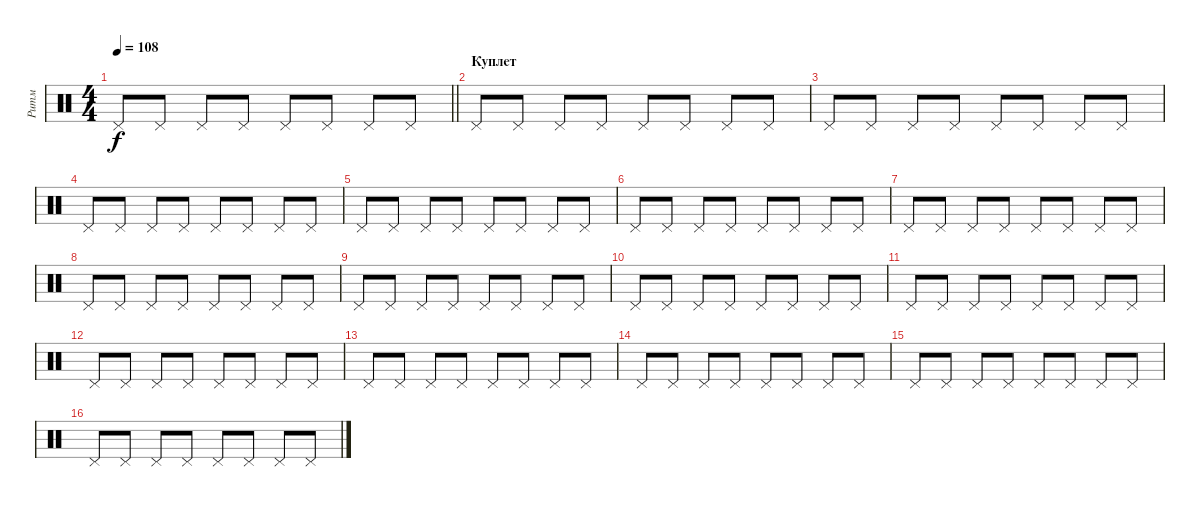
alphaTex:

\track ("Ритм" "Ритм") {instrument percussion}
\staff {score}
\articulation defaults
\ts (4 4)
\tempo 108
\clef neutral
\barLineRight lightlight
\ks c "Pedal Hi-Hat (hit)".8{dy f} "Pedal Hi-Hat (hit)".8 "Pedal Hi-Hat (hit)".8 "Pedal Hi-Hat (hit)".8 "Pedal Hi-Hat (hit)".8 "Pedal Hi-Hat (hit)".8 "Pedal Hi-Hat (hit)".8 "Pedal Hi-Hat (hit)".8
|
\section ("" "Куплет")
"Pedal Hi-Hat (hit)".8 "Pedal Hi-Hat (hit)".8 "Pedal Hi-Hat (hit)".8 "Pedal Hi-Hat (hit)".8 "Pedal Hi-Hat (hit)".8 "Pedal Hi-Hat (hit)".8 "Pedal Hi-Hat (hit)".8 "Pedal Hi-Hat (hit)".8 |
"Pedal Hi-Hat (hit)".8 "Pedal Hi-Hat (hit)".8 "Pedal Hi-Hat (hit)".8 "Pedal Hi-Hat (hit)".8 "Pedal Hi-Hat (hit)".8 "Pedal Hi-Hat (hit)".8 "Pedal Hi-Hat (hit)".8 "Pedal Hi-Hat (hit)".8 |
"Pedal Hi-Hat (hit)".8 "Pedal Hi-Hat (hit)".8 "Pedal Hi-Hat (hit)".8 "Pedal Hi-Hat (hit)".8 "Pedal Hi-Hat (hit)".8 "Pedal Hi-Hat (hit)".8 "Pedal Hi-Hat (hit)".8 "Pedal Hi-Hat (hit)".8 |
"Pedal Hi-Hat (hit)".8 "Pedal Hi-Hat (hit)".8 "Pedal Hi-Hat (hit)".8 "Pedal Hi-Hat (hit)".8 "Pedal Hi-Hat (hit)".8 "Pedal Hi-Hat (hit)".8 "Pedal Hi-Hat (hit)".8 "Pedal Hi-Hat (hit)".8 |
"Pedal Hi-Hat (hit)".8 "Pedal Hi-Hat (hit)".8 "Pedal Hi-Hat (hit)".8 "Pedal Hi-Hat (hit)".8 "Pedal Hi-Hat (hit)".8 "Pedal Hi-Hat (hit)".8 "Pedal Hi-Hat (hit)".8 "Pedal Hi-Hat (hit)".8 |
"Pedal Hi-Hat (hit)".8 "Pedal Hi-Hat (hit)".8 "Pedal Hi-Hat (hit)".8 "Pedal Hi-Hat (hit)".8 "Pedal Hi-Hat (hit)".8 "Pedal Hi-Hat (hit)".8 "Pedal Hi-Hat (hit)".8 "Pedal Hi-Hat (hit)".8 |
"Pedal Hi-Hat (hit)".8 "Pedal Hi-Hat (hit)".8 "Pedal Hi-Hat (hit)".8 "Pedal Hi-Hat (hit)".8 "Pedal Hi-Hat (hit)".8 "Pedal Hi-Hat (hit)".8 "Pedal Hi-Hat (hit)".8 "Pedal Hi-Hat (hit)".8 |
"Pedal Hi-Hat (hit)".8 "Pedal Hi-Hat (hit)".8 "Pedal Hi-Hat (hit)".8 "Pedal Hi-Hat (hit)".8 "Pedal Hi-Hat (hit)".8 "Pedal Hi-Hat (hit)".8 "Pedal Hi-Hat (hit)".8 "Pedal Hi-Hat (hit)".8 |
"Pedal Hi-Hat (hit)".8 "Pedal Hi-Hat (hit)".8 "Pedal Hi-Hat (hit)".8 "Pedal Hi-Hat (hit)".8 "Pedal Hi-Hat (hit)".8 "Pedal Hi-Hat (hit)".8 "Pedal Hi-Hat (hit)".8 "Pedal Hi-Hat (hit)".8 |
"Pedal Hi-Hat (hit)".8 "Pedal Hi-Hat (hit)".8 "Pedal Hi-Hat (hit)".8 "Pedal Hi-Hat (hit)".8 "Pedal Hi-Hat (hit)".8 "Pedal Hi-Hat (hit)".8 "Pedal Hi-Hat (hit)".8 "Pedal Hi-Hat (hit)".8 |
"Pedal Hi-Hat (hit)".8 "Pedal Hi-Hat (hit)".8 "Pedal Hi-Hat (hit)".8 "Pedal Hi-Hat (hit)".8 "Pedal Hi-Hat (hit)".8 "Pedal Hi-Hat (hit)".8 "Pedal Hi-Hat (hit)".8 "Pedal Hi-Hat (hit)".8 |
"Pedal Hi-Hat (hit)".8 "Pedal Hi-Hat (hit)".8 "Pedal Hi-Hat (hit)".8 "Pedal Hi-Hat (hit)".8 "Pedal Hi-Hat (hit)".8 "Pedal Hi-Hat (hit)".8 "Pedal Hi-Hat (hit)".8 "Pedal Hi-Hat (hit)".8 |
"Pedal Hi-Hat (hit)".8 "Pedal Hi-Hat (hit)".8 "Pedal Hi-Hat (hit)".8 "Pedal Hi-Hat (hit)".8 "Pedal Hi-Hat (hit)".8 "Pedal Hi-Hat (hit)".8 "Pedal Hi-Hat (hit)".8 "Pedal Hi-Hat (hit)".8 |
"Pedal Hi-Hat (hit)".8 "Pedal Hi-Hat (hit)".8 "Pedal Hi-Hat (hit)".8 "Pedal Hi-Hat (hit)".8 "Pedal Hi-Hat (hit)".8 "Pedal Hi-Hat (hit)".8 "Pedal Hi-Hat (hit)".8 "Pedal Hi-Hat (hit)".8 |
"Pedal Hi-Hat (hit)".8 "Pedal Hi-Hat (hit)".8 "Pedal Hi-Hat (hit)".8 "Pedal Hi-Hat (hit)".8 "Pedal Hi-Hat (hit)".8 "Pedal Hi-Hat (hit)".8 "Pedal Hi-Hat (hit)".8 "Pedal Hi-Hat (hit)".8
